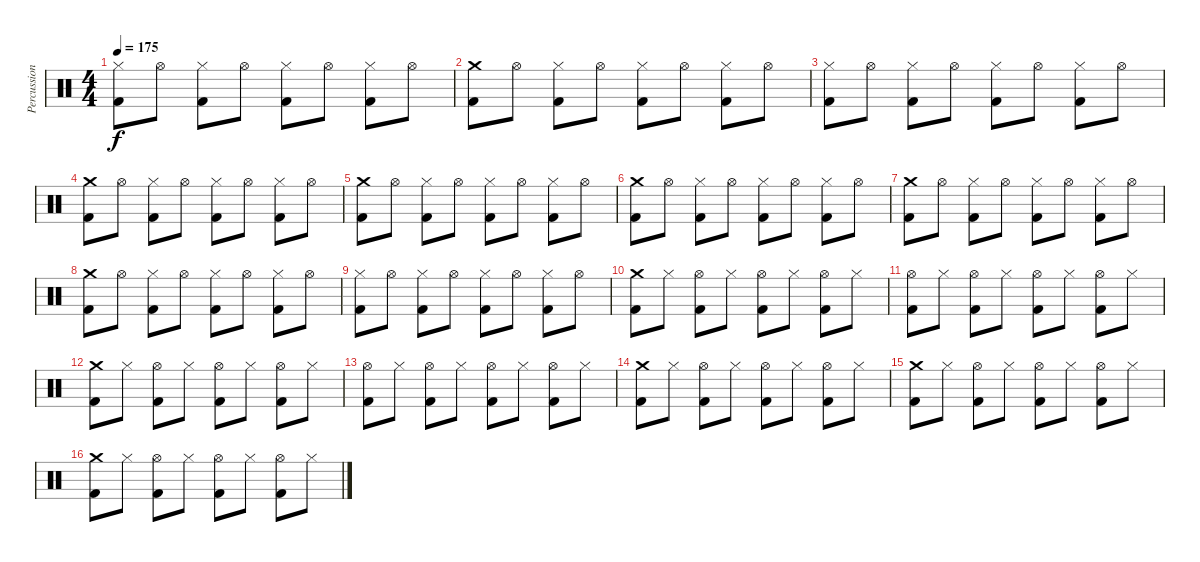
\track ("Percussions" "Percussion") {instrument percussion}
\staff {score}
\articulation defaults
\ts (4 4)
\tempo 175
\clef neutral
\ks c
("Hi-Hat (closed)" "Kick (hit) 2").8{dy f} "Hi-Hat (open)".8 ("Hi-Hat (closed)" "Kick (hit) 2").8 "Hi-Hat (open)".8 ("Hi-Hat (closed)" "Kick (hit) 2").8 "Hi-Hat (open)".8 ("Hi-Hat (closed)" "Kick (hit) 2").8 "Hi-Hat (open)".8 |
("Crash medium (hit)" "Kick (hit) 2").8 "Hi-Hat (open)".8 ("Hi-Hat (closed)" "Kick (hit) 2").8 "Hi-Hat (open)".8 ("Hi-Hat (closed)" "Kick (hit) 2").8 "Hi-Hat (open)".8 ("Hi-Hat (closed)" "Kick (hit) 2").8 "Hi-Hat (open)".8 |
("Hi-Hat (closed)" "Kick (hit) 2").8 "Hi-Hat (open)".8 ("Hi-Hat (closed)" "Kick (hit) 2").8 "Hi-Hat (open)".8 ("Hi-Hat (closed)" "Kick (hit) 2").8 "Hi-Hat (open)".8 ("Hi-Hat (closed)" "Kick (hit) 2").8 "Hi-Hat (open)".8 |
("Crash medium (hit)" "Kick (hit) 2").8 "Hi-Hat (open)".8 ("Hi-Hat (closed)" "Kick (hit) 2").8 "Hi-Hat (open)".8 ("Hi-Hat (closed)" "Kick (hit) 2").8 "Hi-Hat (open)".8 ("Hi-Hat (closed)" "Kick (hit) 2").8 "Hi-Hat (open)".8 |
("Crash medium (hit)" "Kick (hit) 2").8 "Hi-Hat (open)".8 ("Hi-Hat (closed)" "Kick (hit) 2").8 "Hi-Hat (open)".8 ("Hi-Hat (closed)" "Kick (hit) 2").8 "Hi-Hat (open)".8 ("Hi-Hat (closed)" "Kick (hit) 2").8 "Hi-Hat (open)".8 |
("Crash medium (hit)" "Kick (hit) 2").8 "Hi-Hat (open)".8 ("Hi-Hat (closed)" "Kick (hit) 2").8 "Hi-Hat (open)".8 ("Hi-Hat (closed)" "Kick (hit) 2").8 "Hi-Hat (open)".8 ("Hi-Hat (closed)" "Kick (hit) 2").8 "Hi-Hat (open)".8 |
("Crash medium (hit)" "Kick (hit) 2").8 "Hi-Hat (open)".8 ("Hi-Hat (closed)" "Kick (hit) 2").8 "Hi-Hat (open)".8 ("Hi-Hat (closed)" "Kick (hit) 2").8 "Hi-Hat (open)".8 ("Hi-Hat (closed)" "Kick (hit) 2").8 "Hi-Hat (open)".8 |
("Crash medium (hit)" "Kick (hit) 2").8 "Hi-Hat (open)".8 ("Hi-Hat (closed)" "Kick (hit) 2").8 "Hi-Hat (open)".8 ("Hi-Hat (closed)" "Kick (hit) 2").8 "Hi-Hat (open)".8 ("Hi-Hat (closed)" "Kick (hit) 2").8 "Hi-Hat (open)".8 |
("Hi-Hat (closed)" "Kick (hit) 2").8 "Hi-Hat (open)".8 ("Hi-Hat (closed)" "Kick (hit) 2").8 "Hi-Hat (open)".8 ("Hi-Hat (closed)" "Kick (hit) 2").8 "Hi-Hat (open)".8 ("Hi-Hat (closed)" "Kick (hit) 2").8 "Hi-Hat (open)".8 |
("Crash medium (hit)" "Kick (hit) 2").8 "Hi-Hat (closed)".8 ("Hi-Hat (open)" "Kick (hit) 2").8 "Hi-Hat (closed)".8 ("Hi-Hat (open)" "Kick (hit) 2").8 "Hi-Hat (closed)".8 ("Hi-Hat (open)" "Kick (hit) 2").8 "Hi-Hat (closed)".8 |
("Hi-Hat (open)" "Kick (hit) 2").8 "Hi-Hat (closed)".8 ("Hi-Hat (open)" "Kick (hit) 2").8 "Hi-Hat (closed)".8 ("Hi-Hat (open)" "Kick (hit) 2").8 "Hi-Hat (closed)".8 ("Hi-Hat (open)" "Kick (hit) 2").8 "Hi-Hat (closed)".8 |
("Crash medium (hit)" "Kick (hit) 2").8 "Hi-Hat (closed)".8 ("Hi-Hat (open)" "Kick (hit) 2").8 "Hi-Hat (closed)".8 ("Hi-Hat (open)" "Kick (hit) 2").8 "Hi-Hat (closed)".8 ("Hi-Hat (open)" "Kick (hit) 2").8 "Hi-Hat (closed)".8 |
("Hi-Hat (open)" "Kick (hit) 2").8 "Hi-Hat (closed)".8 ("Hi-Hat (open)" "Kick (hit) 2").8 "Hi-Hat (closed)".8 ("Hi-Hat (open)" "Kick (hit) 2").8 "Hi-Hat (closed)".8 ("Hi-Hat (open)" "Kick (hit) 2").8 "Hi-Hat (closed)".8 |
("Crash medium (hit)" "Kick (hit) 2").8 "Hi-Hat (closed)".8 ("Hi-Hat (open)" "Kick (hit) 2").8 "Hi-Hat (closed)".8 ("Hi-Hat (open)" "Kick (hit) 2").8 "Hi-Hat (closed)".8 ("Hi-Hat (open)" "Kick (hit) 2").8 "Hi-Hat (closed)".8 |
("Crash medium (hit)" "Kick (hit) 2").8 "Hi-Hat (closed)".8 ("Hi-Hat (open)" "Kick (hit) 2").8 "Hi-Hat (closed)".8 ("Hi-Hat (open)" "Kick (hit) 2").8 "Hi-Hat (closed)".8 ("Hi-Hat (open)" "Kick (hit) 2").8 "Hi-Hat (closed)".8 |
("Crash medium (hit)" "Kick (hit) 2").8 "Hi-Hat (closed)".8 ("Hi-Hat (open)" "Kick (hit) 2").8 "Hi-Hat (closed)".8 ("Hi-Hat (open)" "Kick (hit) 2").8 "Hi-Hat (closed)".8 ("Hi-Hat (open)" "Kick (hit) 2").8 "Hi-Hat (closed)".8
